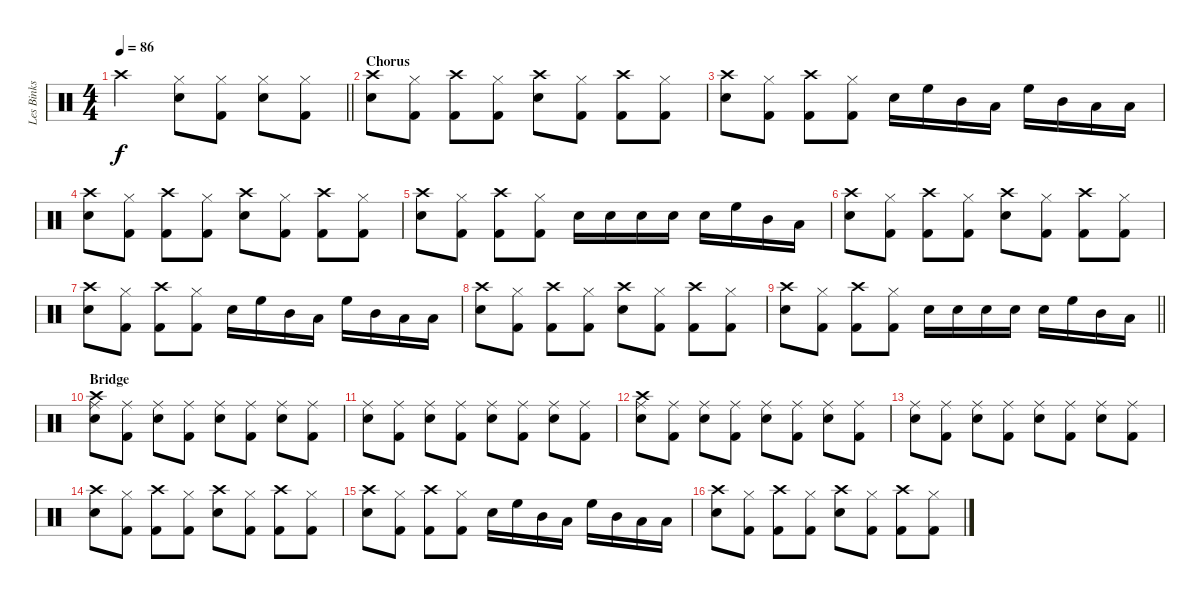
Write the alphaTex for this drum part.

\track ("Les Binks" "Les Binks") {instrument percussion}
\staff {score}
\articulation defaults
\ts (4 4)
\tempo 86
\clef neutral
\barLineRight lightlight
\ks c "Crash high (hit)".2{dy f}
("Hi-Hat (closed)" "Snare (hit) 2").8 ("Hi-Hat (closed)" "Kick (hit) 2").8 ("Hi-Hat (closed)" "Snare (hit) 2").8 ("Hi-Hat (closed)" "Kick (hit) 2").8 |
\section ("" "Chorus")
("Snare (hit) 2" "Crash high (hit)").8 ("Hi-Hat (closed)" "Kick (hit) 2").8 ("Kick (hit) 2" "Crash high (hit)").8 ("Hi-Hat (closed)" "Kick (hit) 2").8 ("Snare (hit) 2" "Crash high (hit)").8 ("Hi-Hat (closed)" "Kick (hit) 2").8 ("Crash high (hit)" "Kick (hit) 2").8 ("Hi-Hat (closed)" "Kick (hit) 2").8 |
("Snare (hit) 2" "Crash high (hit)").8 ("Hi-Hat (closed)" "Kick (hit) 2").8 ("Kick (hit) 2" "Crash high (hit)").8 ("Hi-Hat (closed)" "Kick (hit) 2").8 "Snare (hit) 2".16 "High Floor Tom (hit)".16 "Mid Tom (hit)".16 "Low Tom (hit)".16 "High Floor Tom (hit)".16 "Mid Tom (hit)".16 "Low Tom (hit)".16 "Low Floor Tom (hit)".16 |
("Snare (hit) 2" "Crash high (hit)").8 ("Hi-Hat (closed)" "Kick (hit) 2").8 ("Kick (hit) 2" "Crash high (hit)").8 ("Hi-Hat (closed)" "Kick (hit) 2").8 ("Snare (hit) 2" "Crash high (hit)").8 ("Hi-Hat (closed)" "Kick (hit) 2").8 ("Crash high (hit)" "Kick (hit) 2").8 ("Hi-Hat (closed)" "Kick (hit) 2").8 |
("Snare (hit) 2" "Crash high (hit)").8 ("Hi-Hat (closed)" "Kick (hit) 2").8 ("Kick (hit) 2" "Crash high (hit)").8 ("Hi-Hat (closed)" "Kick (hit) 2").8 "Snare (hit) 2".16 "Snare (hit) 2".16 "Snare (hit) 2".16 "Snare (hit) 2".16 "Snare (hit) 2".16 "High Floor Tom (hit)".16 "Mid Tom (hit)".16 "Low Tom (hit)".16 |
("Snare (hit) 2" "Crash high (hit)").8 ("Hi-Hat (closed)" "Kick (hit) 2").8 ("Kick (hit) 2" "Crash high (hit)").8 ("Hi-Hat (closed)" "Kick (hit) 2").8 ("Snare (hit) 2" "Crash high (hit)").8 ("Hi-Hat (closed)" "Kick (hit) 2").8 ("Crash high (hit)" "Kick (hit) 2").8 ("Hi-Hat (closed)" "Kick (hit) 2").8 |
("Snare (hit) 2" "Crash high (hit)").8 ("Hi-Hat (closed)" "Kick (hit) 2").8 ("Kick (hit) 2" "Crash high (hit)").8 ("Hi-Hat (closed)" "Kick (hit) 2").8 "Snare (hit) 2".16 "High Floor Tom (hit)".16 "Mid Tom (hit)".16 "Low Tom (hit)".16 "High Floor Tom (hit)".16 "Mid Tom (hit)".16 "Low Tom (hit)".16 "Low Floor Tom (hit)".16 |
("Snare (hit) 2" "Crash high (hit)").8 ("Hi-Hat (closed)" "Kick (hit) 2").8 ("Kick (hit) 2" "Crash high (hit)").8 ("Hi-Hat (closed)" "Kick (hit) 2").8 ("Snare (hit) 2" "Crash high (hit)").8 ("Hi-Hat (closed)" "Kick (hit) 2").8 ("Crash high (hit)" "Kick (hit) 2").8 ("Hi-Hat (closed)" "Kick (hit) 2").8 |
\barLineRight lightlight
("Snare (hit) 2" "Crash high (hit)").8 ("Hi-Hat (closed)" "Kick (hit) 2").8 ("Kick (hit) 2" "Crash high (hit)").8 ("Hi-Hat (closed)" "Kick (hit) 2").8 "Snare (hit) 2".16 "Snare (hit) 2".16 "Snare (hit) 2".16 "Snare (hit) 2".16 "Snare (hit) 2".16 "High Floor Tom (hit)".16 "Mid Tom (hit)".16 "Low Tom (hit)".16 |
\section ("" "Bridge")
("Crash high (hit)" "Ride (middle)" "Snare (hit) 2").8 ("Ride (middle)" "Kick (hit) 2").8 ("Ride (middle)" "Snare (hit) 2").8 ("Ride (middle)" "Kick (hit) 2").8 ("Ride (middle)" "Snare (hit) 2").8 ("Ride (middle)" "Kick (hit) 2").8 ("Ride (middle)" "Snare (hit) 2").8 ("Ride (middle)" "Kick (hit) 2").8 |
("Ride (middle)" "Snare (hit) 2").8 ("Ride (middle)" "Kick (hit) 2").8 ("Ride (middle)" "Snare (hit) 2").8 ("Ride (middle)" "Kick (hit) 2").8 ("Ride (middle)" "Snare (hit) 2").8 ("Ride (middle)" "Kick (hit) 2").8 ("Ride (middle)" "Snare (hit) 2").8 ("Ride (middle)" "Kick (hit) 2").8 |
("Crash high (hit)" "Ride (middle)" "Snare (hit) 2").8 ("Ride (middle)" "Kick (hit) 2").8 ("Ride (middle)" "Snare (hit) 2").8 ("Ride (middle)" "Kick (hit) 2").8 ("Ride (middle)" "Snare (hit) 2").8 ("Ride (middle)" "Kick (hit) 2").8 ("Ride (middle)" "Snare (hit) 2").8 ("Ride (middle)" "Kick (hit) 2").8 |
("Ride (middle)" "Snare (hit) 2").8 ("Ride (middle)" "Kick (hit) 2").8 ("Ride (middle)" "Snare (hit) 2").8 ("Ride (middle)" "Kick (hit) 2").8 ("Ride (middle)" "Snare (hit) 2").8 ("Ride (middle)" "Kick (hit) 2").8 ("Ride (middle)" "Snare (hit) 2").8 ("Ride (middle)" "Kick (hit) 2").8 |
("Snare (hit) 2" "Crash high (hit)").8 ("Hi-Hat (closed)" "Kick (hit) 2").8 ("Kick (hit) 2" "Crash high (hit)").8 ("Hi-Hat (closed)" "Kick (hit) 2").8 ("Snare (hit) 2" "Crash high (hit)").8 ("Hi-Hat (closed)" "Kick (hit) 2").8 ("Crash high (hit)" "Kick (hit) 2").8 ("Hi-Hat (closed)" "Kick (hit) 2").8 |
("Snare (hit) 2" "Crash high (hit)").8 ("Hi-Hat (closed)" "Kick (hit) 2").8 ("Kick (hit) 2" "Crash high (hit)").8 ("Hi-Hat (closed)" "Kick (hit) 2").8 "Snare (hit) 2".16 "High Floor Tom (hit)".16 "Mid Tom (hit)".16 "Low Tom (hit)".16 "High Floor Tom (hit)".16 "Mid Tom (hit)".16 "Low Tom (hit)".16 "Low Floor Tom (hit)".16 |
("Snare (hit) 2" "Crash high (hit)").8 ("Hi-Hat (closed)" "Kick (hit) 2").8 ("Kick (hit) 2" "Crash high (hit)").8 ("Hi-Hat (closed)" "Kick (hit) 2").8 ("Snare (hit) 2" "Crash high (hit)").8 ("Hi-Hat (closed)" "Kick (hit) 2").8 ("Crash high (hit)" "Kick (hit) 2").8 ("Hi-Hat (closed)" "Kick (hit) 2").8
